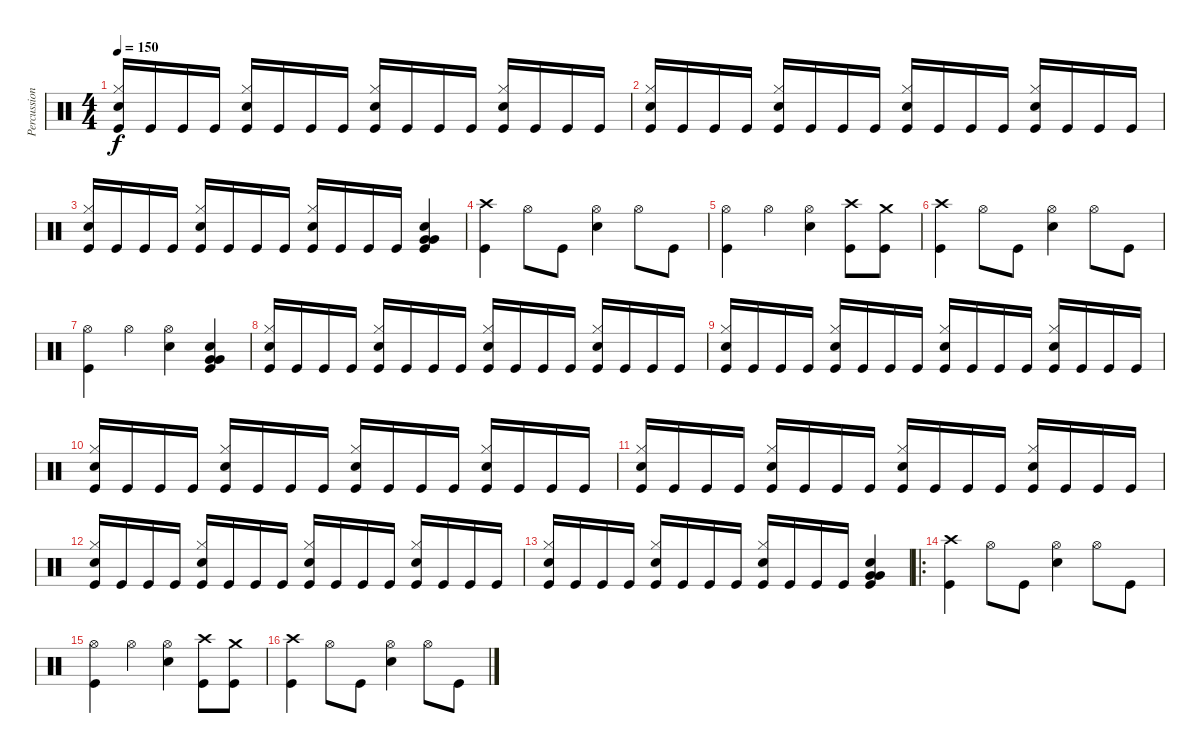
\track ("Percussion" "Percussion") {instrument percussion}
\staff {score}
\articulation defaults
\ts (4 4)
\tempo 150
\clef neutral
\ks c
("Kick (hit)" "Hi-Hat (closed)" "Snare (hit) 2").16{dy f} "Kick (hit)".16 "Kick (hit)".16 "Kick (hit)".16 ("Kick (hit)" "Hi-Hat (closed)" "Snare (hit) 2").16 "Kick (hit)".16 "Kick (hit)".16 "Kick (hit)".16 ("Kick (hit)" "Hi-Hat (closed)" "Snare (hit) 2").16 "Kick (hit)".16 "Kick (hit)".16 "Kick (hit)".16 ("Kick (hit)" "Hi-Hat (closed)" "Snare (hit) 2").16 "Kick (hit)".16 "Kick (hit)".16 "Kick (hit)".16 |
("Kick (hit)" "Hi-Hat (closed)" "Snare (hit) 2").16 "Kick (hit)".16 "Kick (hit)".16 "Kick (hit)".16 ("Kick (hit)" "Hi-Hat (closed)" "Snare (hit) 2").16 "Kick (hit)".16 "Kick (hit)".16 "Kick (hit)".16 ("Kick (hit)" "Hi-Hat (closed)" "Snare (hit) 2").16 "Kick (hit)".16 "Kick (hit)".16 "Kick (hit)".16 ("Kick (hit)" "Hi-Hat (closed)" "Snare (hit) 2").16 "Kick (hit)".16 "Kick (hit)".16 "Kick (hit)".16 |
("Kick (hit)" "Hi-Hat (closed)" "Snare (hit) 2").16 "Kick (hit)".16 "Kick (hit)".16 "Kick (hit)".16 ("Kick (hit)" "Hi-Hat (closed)" "Snare (hit) 2").16 "Kick (hit)".16 "Kick (hit)".16 "Kick (hit)".16 ("Kick (hit)" "Hi-Hat (closed)" "Snare (hit) 2").16 "Kick (hit)".16 "Kick (hit)".16 "Kick (hit)".16 ("Kick (hit)" "Very Low Tom (hit)" "Very Low Tom (hit)" "Snare (hit) 2").4 |
("Kick (hit)" "Crash high (hit)").4 "Hi-Hat (open)".8 "Kick (hit)".8 ("Hi-Hat (open)" "Snare (hit) 2").4 "Hi-Hat (open)".8 "Kick (hit)".8 |
("Kick (hit)" "Hi-Hat (open)").4 "Hi-Hat (open)".4 ("Hi-Hat (open)" "Snare (hit) 2").4 ("Kick (hit)" "Crash high (hit)").8 ("Kick (hit)" "Crash medium (hit)").8 |
("Kick (hit)" "Crash high (hit)").4 "Hi-Hat (open)".8 "Kick (hit)".8 ("Hi-Hat (open)" "Snare (hit) 2").4 "Hi-Hat (open)".8 "Kick (hit)".8 |
("Kick (hit)" "Hi-Hat (open)").4 "Hi-Hat (open)".4 ("Hi-Hat (open)" "Snare (hit) 2").4 ("Kick (hit)" "Very Low Tom (hit)" "Very Low Tom (hit)" "Snare (hit) 2").4 |
("Kick (hit)" "Hi-Hat (closed)" "Snare (hit) 2").16 "Kick (hit)".16 "Kick (hit)".16 "Kick (hit)".16 ("Kick (hit)" "Hi-Hat (closed)" "Snare (hit) 2").16 "Kick (hit)".16 "Kick (hit)".16 "Kick (hit)".16 ("Kick (hit)" "Hi-Hat (closed)" "Snare (hit) 2").16 "Kick (hit)".16 "Kick (hit)".16 "Kick (hit)".16 ("Kick (hit)" "Hi-Hat (closed)" "Snare (hit) 2").16 "Kick (hit)".16 "Kick (hit)".16 "Kick (hit)".16 |
("Kick (hit)" "Hi-Hat (closed)" "Snare (hit) 2").16 "Kick (hit)".16 "Kick (hit)".16 "Kick (hit)".16 ("Kick (hit)" "Hi-Hat (closed)" "Snare (hit) 2").16 "Kick (hit)".16 "Kick (hit)".16 "Kick (hit)".16 ("Kick (hit)" "Hi-Hat (closed)" "Snare (hit) 2").16 "Kick (hit)".16 "Kick (hit)".16 "Kick (hit)".16 ("Kick (hit)" "Hi-Hat (closed)" "Snare (hit) 2").16 "Kick (hit)".16 "Kick (hit)".16 "Kick (hit)".16 |
("Kick (hit)" "Hi-Hat (closed)" "Snare (hit) 2").16 "Kick (hit)".16 "Kick (hit)".16 "Kick (hit)".16 ("Kick (hit)" "Hi-Hat (closed)" "Snare (hit) 2").16 "Kick (hit)".16 "Kick (hit)".16 "Kick (hit)".16 ("Kick (hit)" "Hi-Hat (closed)" "Snare (hit) 2").16 "Kick (hit)".16 "Kick (hit)".16 "Kick (hit)".16 ("Kick (hit)" "Hi-Hat (closed)" "Snare (hit) 2").16 "Kick (hit)".16 "Kick (hit)".16 "Kick (hit)".16 |
("Kick (hit)" "Hi-Hat (closed)" "Snare (hit) 2").16 "Kick (hit)".16 "Kick (hit)".16 "Kick (hit)".16 ("Kick (hit)" "Hi-Hat (closed)" "Snare (hit) 2").16 "Kick (hit)".16 "Kick (hit)".16 "Kick (hit)".16 ("Kick (hit)" "Hi-Hat (closed)" "Snare (hit) 2").16 "Kick (hit)".16 "Kick (hit)".16 "Kick (hit)".16 ("Kick (hit)" "Hi-Hat (closed)" "Snare (hit) 2").16 "Kick (hit)".16 "Kick (hit)".16 "Kick (hit)".16 |
("Kick (hit)" "Hi-Hat (closed)" "Snare (hit) 2").16 "Kick (hit)".16 "Kick (hit)".16 "Kick (hit)".16 ("Kick (hit)" "Hi-Hat (closed)" "Snare (hit) 2").16 "Kick (hit)".16 "Kick (hit)".16 "Kick (hit)".16 ("Kick (hit)" "Hi-Hat (closed)" "Snare (hit) 2").16 "Kick (hit)".16 "Kick (hit)".16 "Kick (hit)".16 ("Kick (hit)" "Hi-Hat (closed)" "Snare (hit) 2").16 "Kick (hit)".16 "Kick (hit)".16 "Kick (hit)".16 |
("Kick (hit)" "Hi-Hat (closed)" "Snare (hit) 2").16 "Kick (hit)".16 "Kick (hit)".16 "Kick (hit)".16 ("Kick (hit)" "Hi-Hat (closed)" "Snare (hit) 2").16 "Kick (hit)".16 "Kick (hit)".16 "Kick (hit)".16 ("Kick (hit)" "Hi-Hat (closed)" "Snare (hit) 2").16 "Kick (hit)".16 "Kick (hit)".16 "Kick (hit)".16 ("Kick (hit)" "Very Low Tom (hit)" "Very Low Tom (hit)" "Snare (hit) 2").4 |
\ro
("Kick (hit)" "Crash high (hit)").4 "Hi-Hat (open)".8 "Kick (hit)".8 ("Hi-Hat (open)" "Snare (hit) 2").4 "Hi-Hat (open)".8 "Kick (hit)".8 |
("Kick (hit)" "Hi-Hat (open)").4 "Hi-Hat (open)".4 ("Hi-Hat (open)" "Snare (hit) 2").4 ("Kick (hit)" "Crash high (hit)").8 ("Kick (hit)" "Crash medium (hit)").8 |
("Kick (hit)" "Crash high (hit)").4 "Hi-Hat (open)".8 "Kick (hit)".8 ("Hi-Hat (open)" "Snare (hit) 2").4 "Hi-Hat (open)".8 "Kick (hit)".8
